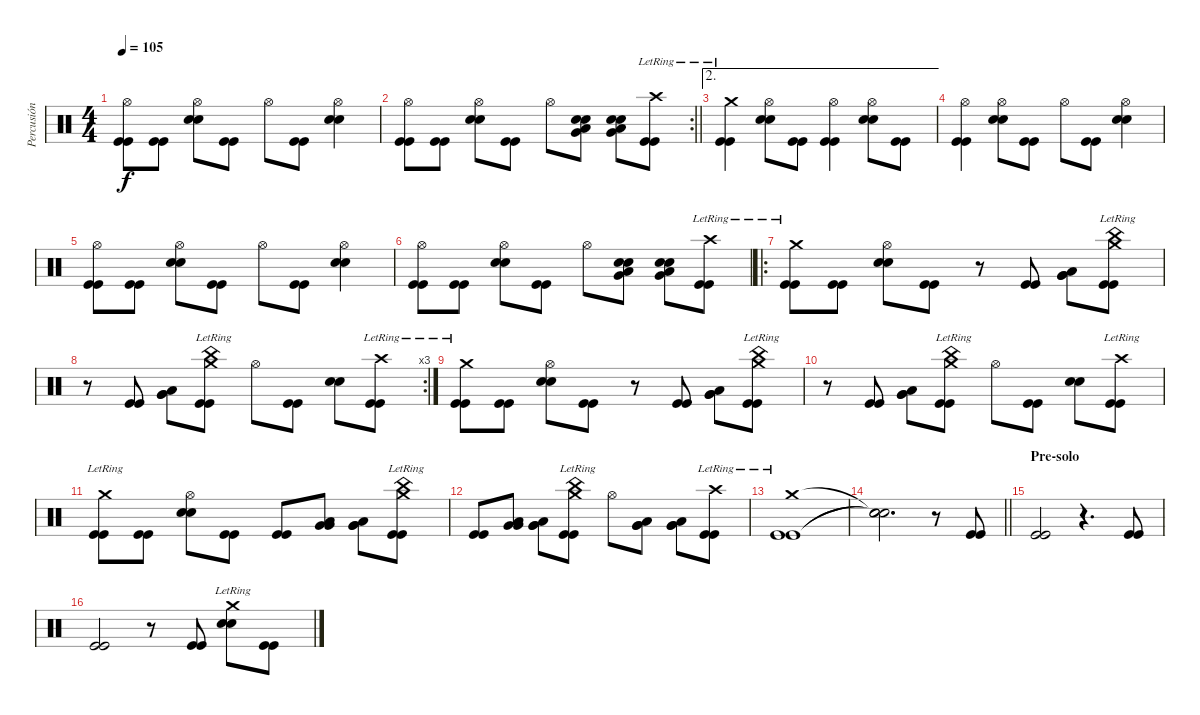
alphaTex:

\track ("Percusión" "Percusión") {instrument percussion}
\staff {score}
\articulation defaults
\ts (4 4)
\tempo 105
\clef neutral
\ks c
("Hi-Hat (open)" "Kick (hit)" "Kick (hit)").8{dy f} ("Kick (hit)" "Kick (hit)").8 ("Hi-Hat (open)" "Electric Snare (hit)" "Electric Snare (hit)").8 ("Kick (hit)" "Kick (hit)").8 "Hi-Hat (open)".8 ("Kick (hit)" "Kick (hit)").8 ("Hi-Hat (open)" "Electric Snare (hit)" "Electric Snare (hit)").4 |
\rc 2
\barLineRight lightlight
("Hi-Hat (open)" "Kick (hit)" "Kick (hit)").8 ("Kick (hit)" "Kick (hit)").8 ("Hi-Hat (open)" "Electric Snare (hit)" "Electric Snare (hit)").8 ("Kick (hit)" "Kick (hit)").8 "Hi-Hat (open)".8 ("Low Tom (hit)" "Very Low Tom (hit)" "Electric Snare (hit)" "Electric Snare (hit)").8 ("Low Tom (hit)" "Very Low Tom (hit)" "Electric Snare (hit)" "Electric Snare (hit)").8 ("Crash high (hit)"{lr} "Kick (hit)" "Kick (hit)").8 |
\ae 2
("Crash medium (hit)"{lr} "Kick (hit)" "Kick (hit)").4 ("Hi-Hat (open)" "Electric Snare (hit)" "Electric Snare (hit)").8 ("Kick (hit)" "Kick (hit)").8 ("Hi-Hat (open)" "Kick (hit)" "Kick (hit)").4 ("Hi-Hat (open)" "Electric Snare (hit)" "Electric Snare (hit)").8 ("Kick (hit)" "Kick (hit)").8 |
("Hi-Hat (open)" "Kick (hit)" "Kick (hit)").4 ("Hi-Hat (open)" "Electric Snare (hit)" "Electric Snare (hit)").8 ("Kick (hit)" "Kick (hit)").8 "Hi-Hat (open)".8 ("Kick (hit)" "Kick (hit)").8 ("Hi-Hat (open)" "Electric Snare (hit)" "Electric Snare (hit)").4 |
("Hi-Hat (open)" "Kick (hit)" "Kick (hit)").8 ("Kick (hit)" "Kick (hit)").8 ("Hi-Hat (open)" "Electric Snare (hit)" "Electric Snare (hit)").8 ("Kick (hit)" "Kick (hit)").8 "Hi-Hat (open)".8 ("Kick (hit)" "Kick (hit)").8 ("Hi-Hat (open)" "Electric Snare (hit)" "Electric Snare (hit)").4 |
("Hi-Hat (open)" "Kick (hit)" "Kick (hit)").8 ("Kick (hit)" "Kick (hit)").8 ("Hi-Hat (open)" "Electric Snare (hit)" "Electric Snare (hit)").8 ("Kick (hit)" "Kick (hit)").8 "Hi-Hat (open)".8 ("Low Tom (hit)" "Very Low Tom (hit)" "Electric Snare (hit)" "Electric Snare (hit)").8 ("Low Tom (hit)" "Very Low Tom (hit)" "Electric Snare (hit)" "Electric Snare (hit)").8 ("Crash high (hit)"{lr} "Kick (hit)" "Kick (hit)").8 |
\ro
("Crash medium (hit)"{lr} "Kick (hit)" "Kick (hit)").8 ("Kick (hit)" "Kick (hit)").8 ("Hi-Hat (open)" "Electric Snare (hit)" "Electric Snare (hit)").8 ("Kick (hit)" "Kick (hit)").8 r.8 ("Kick (hit)" "Kick (hit)").8 ("Low Tom (hit)" "Very Low Tom (hit)" "Very Low Tom (hit)").8 ("Crash medium (hit)"{lr} "China (hit)"{lr} "Kick (hit)" "Kick (hit)").8 |
\rc 3
r.8 ("Kick (hit)" "Kick (hit)").8 ("Low Tom (hit)" "Very Low Tom (hit)" "Very Low Tom (hit)").8 ("Crash medium (hit)"{lr} "China (hit)"{lr} "Kick (hit)" "Kick (hit)").8 "Hi-Hat (open)".8 ("Kick (hit)" "Kick (hit)").8 ("Electric Snare (hit)" "Electric Snare (hit)").8 ("Crash high (hit)"{lr} "Kick (hit)" "Kick (hit)").8 |
("Crash medium (hit)"{lr} "Kick (hit)" "Kick (hit)").8 ("Kick (hit)" "Kick (hit)").8 ("Hi-Hat (open)" "Electric Snare (hit)" "Electric Snare (hit)").8 ("Kick (hit)" "Kick (hit)").8 r.8 ("Kick (hit)" "Kick (hit)").8 ("Low Tom (hit)" "Very Low Tom (hit)" "Very Low Tom (hit)").8 ("Crash medium (hit)"{lr} "China (hit)"{lr} "Kick (hit)" "Kick (hit)").8 |
r.8 ("Kick (hit)" "Kick (hit)").8 ("Low Tom (hit)" "Very Low Tom (hit)" "Very Low Tom (hit)").8 ("Crash medium (hit)"{lr} "China (hit)"{lr} "Kick (hit)" "Kick (hit)").8 "Hi-Hat (open)".8 ("Kick (hit)" "Kick (hit)").8 ("Electric Snare (hit)" "Electric Snare (hit)").8 ("Crash high (hit)"{lr} "Kick (hit)" "Kick (hit)").8 |
("Crash medium (hit)"{lr} "Kick (hit)" "Kick (hit)").8 ("Kick (hit)" "Kick (hit)").8 ("Hi-Hat (open)" "Electric Snare (hit)" "Electric Snare (hit)").8 ("Kick (hit)" "Kick (hit)").8 ("Kick (hit)" "Kick (hit)").8 ("Low Tom (hit)" "Very Low Tom (hit)" "Very Low Tom (hit)").8 ("Low Tom (hit)" "Very Low Tom (hit)" "Very Low Tom (hit)").8 ("Crash medium (hit)"{lr} "China (hit)"{lr} "Kick (hit)" "Kick (hit)").8 |
("Kick (hit)" "Kick (hit)").8 ("Low Tom (hit)" "Very Low Tom (hit)" "Very Low Tom (hit)").8 ("Low Tom (hit)" "Very Low Tom (hit)" "Very Low Tom (hit)").8 ("Crash medium (hit)"{lr} "China (hit)"{lr} "Kick (hit)" "Kick (hit)").8 "Hi-Hat (open)".8 ("Low Tom (hit)" "Very Low Tom (hit)" "Very Low Tom (hit)").8 ("Low Tom (hit)" "Very Low Tom (hit)" "Very Low Tom (hit)").8 ("Crash high (hit)"{lr} "Kick (hit)" "Kick (hit)").8 |
("Crash medium (hit)"{lr} "Kick (hit)" "Kick (hit)").1 |
\barLineRight lightlight
("Snare (hit)"{t} "Snare (hit)"{t} "Snare (hit)"{t}).2{d} r.8 ("Kick (hit)" "Kick (hit)").8 |
\section ("" "Pre-solo")
("Kick (hit)" "Kick (hit)").2 r.4{d} ("Kick (hit)" "Kick (hit)").8 |
("Kick (hit)" "Kick (hit)").2 r.8 ("Kick (hit)" "Kick (hit)").8 ("Crash medium (hit)"{lr} "Electric Snare (hit)" "Electric Snare (hit)").8 ("Kick (hit)" "Kick (hit)").8
